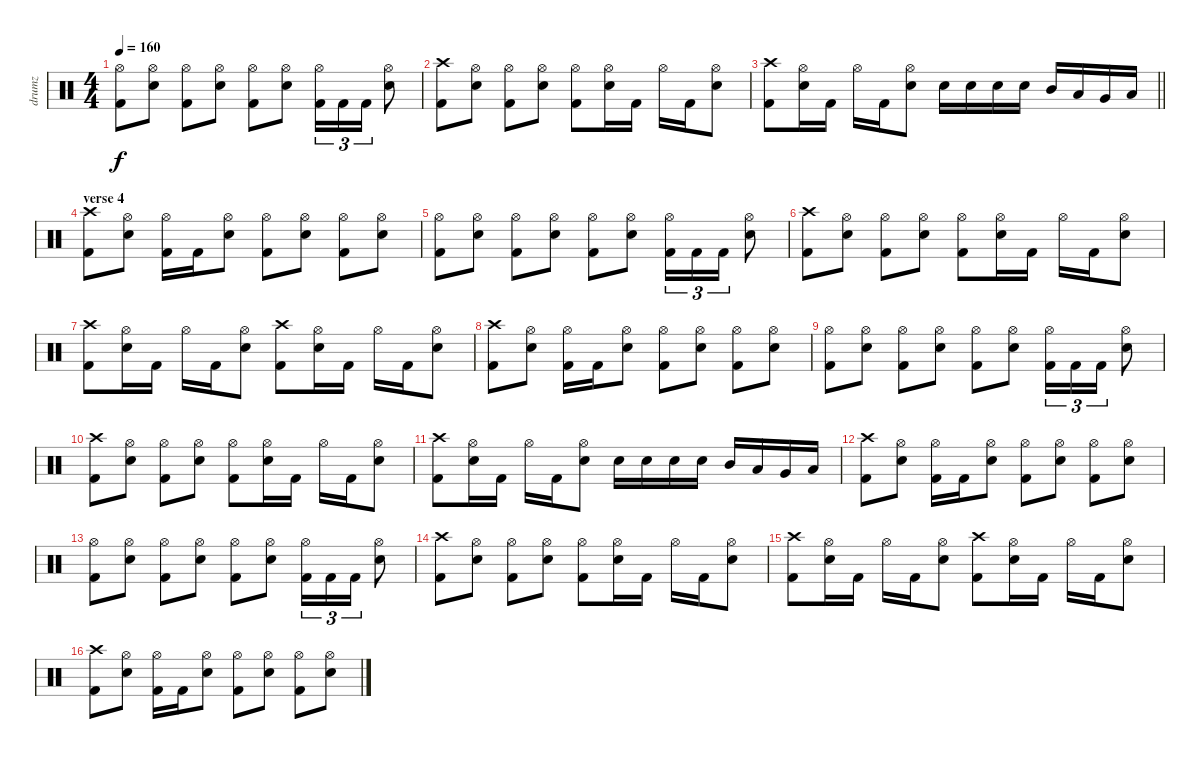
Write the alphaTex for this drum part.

\track ("drumz" "drumz") {instrument percussion}
\staff {score}
\articulation defaults
\ts (4 4)
\tempo 160
\clef neutral
\ks c
("Hi-Hat (open)" "Kick (hit) 2").8{dy f} ("Hi-Hat (open)" "Electric Snare (hit)").8 ("Hi-Hat (open)" "Kick (hit) 2").8 ("Hi-Hat (open)" "Electric Snare (hit)").8 ("Hi-Hat (open)" "Kick (hit) 2").8 ("Hi-Hat (open)" "Electric Snare (hit)").8 ("Hi-Hat (open)" "Kick (hit) 2").16{tu (3 2)} "Kick (hit) 2".16{tu (3 2)} "Kick (hit) 2".16{tu (3 2)} ("Hi-Hat (open)" "Electric Snare (hit)").8 |
("Crash high (hit)" "Kick (hit) 2").8 ("Hi-Hat (open)" "Electric Snare (hit)").8 ("Hi-Hat (open)" "Kick (hit) 2").8 ("Hi-Hat (open)" "Electric Snare (hit)").8 ("Hi-Hat (open)" "Kick (hit) 2").8 ("Hi-Hat (open)" "Electric Snare (hit)").16 "Kick (hit) 2".16 "Hi-Hat (open)".16 "Kick (hit) 2".16 ("Hi-Hat (open)" "Electric Snare (hit)").8 |
\barLineRight lightlight
("Crash high (hit)" "Kick (hit) 2").8 ("Hi-Hat (open)" "Electric Snare (hit)").16 "Kick (hit) 2".16 "Hi-Hat (open)".16 "Kick (hit) 2".16 ("Hi-Hat (open)" "Electric Snare (hit)").8 "Electric Snare (hit)".16 "Electric Snare (hit)".16 "Electric Snare (hit)".16 "Electric Snare (hit)".16 "Mid Tom (hit)".16 "Low Tom (hit)".16 "Very Low Tom (hit)".16 "Low Floor Tom (hit)".16 |
\section ("" "verse 4")
("Crash high (hit)" "Kick (hit) 2").8 ("Hi-Hat (open)" "Electric Snare (hit)").8 ("Hi-Hat (open)" "Kick (hit) 2").16 "Kick (hit) 2".16 ("Hi-Hat (open)" "Electric Snare (hit)").8 ("Hi-Hat (open)" "Kick (hit) 2").8 ("Hi-Hat (open)" "Electric Snare (hit)").8 ("Hi-Hat (open)" "Kick (hit) 2").8 ("Hi-Hat (open)" "Electric Snare (hit)").8 |
("Hi-Hat (open)" "Kick (hit) 2").8 ("Hi-Hat (open)" "Electric Snare (hit)").8 ("Hi-Hat (open)" "Kick (hit) 2").8 ("Hi-Hat (open)" "Electric Snare (hit)").8 ("Hi-Hat (open)" "Kick (hit) 2").8 ("Hi-Hat (open)" "Electric Snare (hit)").8 ("Hi-Hat (open)" "Kick (hit) 2").16{tu (3 2)} "Kick (hit) 2".16{tu (3 2)} "Kick (hit) 2".16{tu (3 2)} ("Hi-Hat (open)" "Electric Snare (hit)").8 |
("Crash high (hit)" "Kick (hit) 2").8 ("Hi-Hat (open)" "Electric Snare (hit)").8 ("Hi-Hat (open)" "Kick (hit) 2").8 ("Hi-Hat (open)" "Electric Snare (hit)").8 ("Hi-Hat (open)" "Kick (hit) 2").8 ("Hi-Hat (open)" "Electric Snare (hit)").16 "Kick (hit) 2".16 "Hi-Hat (open)".16 "Kick (hit) 2".16 ("Hi-Hat (open)" "Electric Snare (hit)").8 |
("Crash high (hit)" "Kick (hit) 2").8 ("Hi-Hat (open)" "Electric Snare (hit)").16 "Kick (hit) 2".16 "Hi-Hat (open)".16 "Kick (hit) 2".16 ("Hi-Hat (open)" "Electric Snare (hit)").8 ("Crash high (hit)" "Kick (hit) 2").8 ("Hi-Hat (open)" "Electric Snare (hit)").16 "Kick (hit) 2".16 "Hi-Hat (open)".16 "Kick (hit) 2".16 ("Hi-Hat (open)" "Electric Snare (hit)").8 |
("Crash high (hit)" "Kick (hit) 2").8 ("Hi-Hat (open)" "Electric Snare (hit)").8 ("Hi-Hat (open)" "Kick (hit) 2").16 "Kick (hit) 2".16 ("Hi-Hat (open)" "Electric Snare (hit)").8 ("Hi-Hat (open)" "Kick (hit) 2").8 ("Hi-Hat (open)" "Electric Snare (hit)").8 ("Hi-Hat (open)" "Kick (hit) 2").8 ("Hi-Hat (open)" "Electric Snare (hit)").8 |
("Hi-Hat (open)" "Kick (hit) 2").8 ("Hi-Hat (open)" "Electric Snare (hit)").8 ("Hi-Hat (open)" "Kick (hit) 2").8 ("Hi-Hat (open)" "Electric Snare (hit)").8 ("Hi-Hat (open)" "Kick (hit) 2").8 ("Hi-Hat (open)" "Electric Snare (hit)").8 ("Hi-Hat (open)" "Kick (hit) 2").16{tu (3 2)} "Kick (hit) 2".16{tu (3 2)} "Kick (hit) 2".16{tu (3 2)} ("Hi-Hat (open)" "Electric Snare (hit)").8 |
("Crash high (hit)" "Kick (hit) 2").8 ("Hi-Hat (open)" "Electric Snare (hit)").8 ("Hi-Hat (open)" "Kick (hit) 2").8 ("Hi-Hat (open)" "Electric Snare (hit)").8 ("Hi-Hat (open)" "Kick (hit) 2").8 ("Hi-Hat (open)" "Electric Snare (hit)").16 "Kick (hit) 2".16 "Hi-Hat (open)".16 "Kick (hit) 2".16 ("Hi-Hat (open)" "Electric Snare (hit)").8 |
("Crash high (hit)" "Kick (hit) 2").8 ("Hi-Hat (open)" "Electric Snare (hit)").16 "Kick (hit) 2".16 "Hi-Hat (open)".16 "Kick (hit) 2".16 ("Hi-Hat (open)" "Electric Snare (hit)").8 "Electric Snare (hit)".16 "Electric Snare (hit)".16 "Electric Snare (hit)".16 "Electric Snare (hit)".16 "Mid Tom (hit)".16 "Low Tom (hit)".16 "Very Low Tom (hit)".16 "Low Floor Tom (hit)".16 |
("Crash high (hit)" "Kick (hit) 2").8 ("Hi-Hat (open)" "Electric Snare (hit)").8 ("Hi-Hat (open)" "Kick (hit) 2").16 "Kick (hit) 2".16 ("Hi-Hat (open)" "Electric Snare (hit)").8 ("Hi-Hat (open)" "Kick (hit) 2").8 ("Hi-Hat (open)" "Electric Snare (hit)").8 ("Hi-Hat (open)" "Kick (hit) 2").8 ("Hi-Hat (open)" "Electric Snare (hit)").8 |
("Hi-Hat (open)" "Kick (hit) 2").8 ("Hi-Hat (open)" "Electric Snare (hit)").8 ("Hi-Hat (open)" "Kick (hit) 2").8 ("Hi-Hat (open)" "Electric Snare (hit)").8 ("Hi-Hat (open)" "Kick (hit) 2").8 ("Hi-Hat (open)" "Electric Snare (hit)").8 ("Hi-Hat (open)" "Kick (hit) 2").16{tu (3 2)} "Kick (hit) 2".16{tu (3 2)} "Kick (hit) 2".16{tu (3 2)} ("Hi-Hat (open)" "Electric Snare (hit)").8 |
("Crash high (hit)" "Kick (hit) 2").8 ("Hi-Hat (open)" "Electric Snare (hit)").8 ("Hi-Hat (open)" "Kick (hit) 2").8 ("Hi-Hat (open)" "Electric Snare (hit)").8 ("Hi-Hat (open)" "Kick (hit) 2").8 ("Hi-Hat (open)" "Electric Snare (hit)").16 "Kick (hit) 2".16 "Hi-Hat (open)".16 "Kick (hit) 2".16 ("Hi-Hat (open)" "Electric Snare (hit)").8 |
("Crash high (hit)" "Kick (hit) 2").8 ("Hi-Hat (open)" "Electric Snare (hit)").16 "Kick (hit) 2".16 "Hi-Hat (open)".16 "Kick (hit) 2".16 ("Hi-Hat (open)" "Electric Snare (hit)").8 ("Crash high (hit)" "Kick (hit) 2").8 ("Hi-Hat (open)" "Electric Snare (hit)").16 "Kick (hit) 2".16 "Hi-Hat (open)".16 "Kick (hit) 2".16 ("Hi-Hat (open)" "Electric Snare (hit)").8 |
("Crash high (hit)" "Kick (hit) 2").8 ("Hi-Hat (open)" "Electric Snare (hit)").8 ("Hi-Hat (open)" "Kick (hit) 2").16 "Kick (hit) 2".16 ("Hi-Hat (open)" "Electric Snare (hit)").8 ("Hi-Hat (open)" "Kick (hit) 2").8 ("Hi-Hat (open)" "Electric Snare (hit)").8 ("Hi-Hat (open)" "Kick (hit) 2").8 ("Hi-Hat (open)" "Electric Snare (hit)").8
